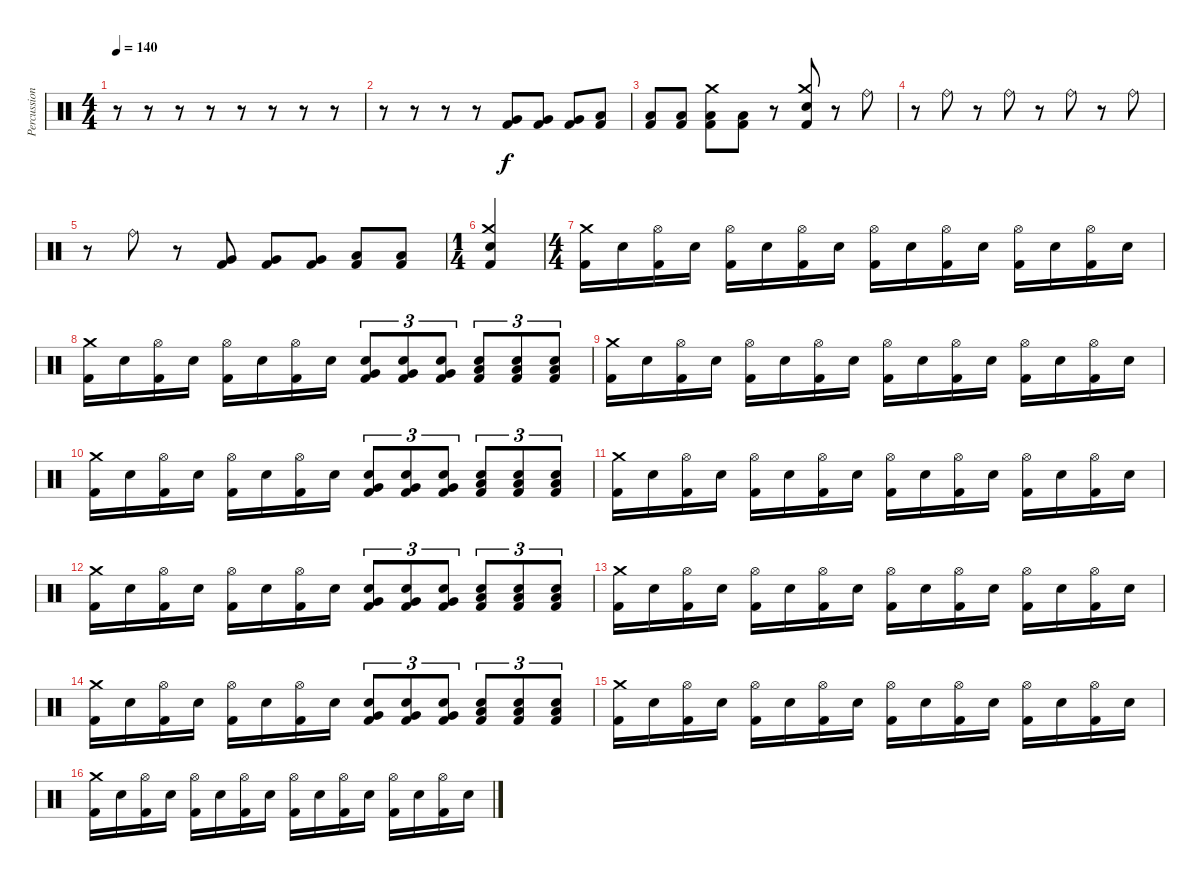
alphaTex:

\track ("Percussion" "Percussion") {instrument percussion}
\staff {score}
\articulation defaults
\ts (4 4)
\tempo 140
\clef neutral
\ks c
r.8{dy f} r.8 r.8 r.8 r.8 r.8 r.8 r.8 |
r.8 r.8 r.8 r.8 ("Very Low Tom (hit)" "Kick (hit) 2").8 ("Very Low Tom (hit)" "Kick (hit) 2").8 ("Very Low Tom (hit)" "Kick (hit) 2").8 ("Low Tom (hit)" "Kick (hit) 2").8 |
("Low Tom (hit)" "Kick (hit) 2").8 ("Low Tom (hit)" "Kick (hit) 2").8 ("Crash medium (hit)" "Low Tom (hit)" "Kick (hit) 2").8 ("Low Floor Tom (hit)" "Kick (hit) 2").8 r.8 ("Crash medium (hit)" "Electric Snare (hit)" "Kick (hit) 2").8 r.8 "Ride (bell)".8 |
r.8 "Ride (bell)".8 r.8 "Ride (bell)".8 r.8 "Ride (bell)".8 r.8 "Ride (bell)".8 |
r.8 "Ride (bell)".8 r.8 ("Very Low Tom (hit)" "Kick (hit) 2").8 ("Very Low Tom (hit)" "Kick (hit) 2").8 ("Very Low Tom (hit)" "Kick (hit) 2").8 ("Low Tom (hit)" "Kick (hit) 2").8 ("Low Tom (hit)" "Kick (hit) 2").8 |
\ts (1 4)
("Crash medium (hit)" "Electric Snare (hit)" "Kick (hit) 2").4 |
\ts (4 4)
("Crash medium (hit)" "Kick (hit) 2").16 "Electric Snare (hit)".16 ("Hi-Hat (open)" "Kick (hit) 2").16 "Electric Snare (hit)".16 ("Hi-Hat (open)" "Kick (hit) 2").16 "Electric Snare (hit)".16 ("Hi-Hat (open)" "Kick (hit) 2").16 "Electric Snare (hit)".16 ("Hi-Hat (open)" "Kick (hit) 2").16 "Electric Snare (hit)".16 ("Hi-Hat (open)" "Kick (hit) 2").16 "Electric Snare (hit)".16 ("Hi-Hat (open)" "Kick (hit) 2").16 "Electric Snare (hit)".16 ("Hi-Hat (open)" "Kick (hit) 2").16 "Electric Snare (hit)".16 |
("Crash medium (hit)" "Kick (hit) 2").16 "Electric Snare (hit)".16 ("Hi-Hat (open)" "Kick (hit) 2").16 "Electric Snare (hit)".16 ("Hi-Hat (open)" "Kick (hit) 2").16 "Electric Snare (hit)".16 ("Hi-Hat (open)" "Kick (hit) 2").16 "Electric Snare (hit)".16 ("Very Low Tom (hit)" "Electric Snare (hit)" "Kick (hit) 2").8{tu (3 2)} ("Very Low Tom (hit)" "Electric Snare (hit)" "Kick (hit) 2").8{tu (3 2)} ("Very Low Tom (hit)" "Electric Snare (hit)" "Kick (hit) 2").8{tu (3 2)} ("Low Tom (hit)" "Electric Snare (hit)" "Kick (hit) 2").8{tu (3 2)} ("Low Tom (hit)" "Electric Snare (hit)" "Kick (hit) 2").8{tu (3 2)} ("Low Tom (hit)" "Electric Snare (hit)" "Kick (hit) 2").8{tu (3 2)} |
("Crash medium (hit)" "Kick (hit) 2").16 "Electric Snare (hit)".16 ("Hi-Hat (open)" "Kick (hit) 2").16 "Electric Snare (hit)".16 ("Hi-Hat (open)" "Kick (hit) 2").16 "Electric Snare (hit)".16 ("Hi-Hat (open)" "Kick (hit) 2").16 "Electric Snare (hit)".16 ("Hi-Hat (open)" "Kick (hit) 2").16 "Electric Snare (hit)".16 ("Hi-Hat (open)" "Kick (hit) 2").16 "Electric Snare (hit)".16 ("Hi-Hat (open)" "Kick (hit) 2").16 "Electric Snare (hit)".16 ("Hi-Hat (open)" "Kick (hit) 2").16 "Electric Snare (hit)".16 |
("Crash medium (hit)" "Kick (hit) 2").16 "Electric Snare (hit)".16 ("Hi-Hat (open)" "Kick (hit) 2").16 "Electric Snare (hit)".16 ("Hi-Hat (open)" "Kick (hit) 2").16 "Electric Snare (hit)".16 ("Hi-Hat (open)" "Kick (hit) 2").16 "Electric Snare (hit)".16 ("Very Low Tom (hit)" "Electric Snare (hit)" "Kick (hit) 2").8{tu (3 2)} ("Very Low Tom (hit)" "Electric Snare (hit)" "Kick (hit) 2").8{tu (3 2)} ("Very Low Tom (hit)" "Electric Snare (hit)" "Kick (hit) 2").8{tu (3 2)} ("Low Tom (hit)" "Electric Snare (hit)" "Kick (hit) 2").8{tu (3 2)} ("Low Tom (hit)" "Electric Snare (hit)" "Kick (hit) 2").8{tu (3 2)} ("Low Tom (hit)" "Electric Snare (hit)" "Kick (hit) 2").8{tu (3 2)} |
("Crash medium (hit)" "Kick (hit) 2").16 "Electric Snare (hit)".16 ("Hi-Hat (open)" "Kick (hit) 2").16 "Electric Snare (hit)".16 ("Hi-Hat (open)" "Kick (hit) 2").16 "Electric Snare (hit)".16 ("Hi-Hat (open)" "Kick (hit) 2").16 "Electric Snare (hit)".16 ("Hi-Hat (open)" "Kick (hit) 2").16 "Electric Snare (hit)".16 ("Hi-Hat (open)" "Kick (hit) 2").16 "Electric Snare (hit)".16 ("Hi-Hat (open)" "Kick (hit) 2").16 "Electric Snare (hit)".16 ("Hi-Hat (open)" "Kick (hit) 2").16 "Electric Snare (hit)".16 |
("Crash medium (hit)" "Kick (hit) 2").16 "Electric Snare (hit)".16 ("Hi-Hat (open)" "Kick (hit) 2").16 "Electric Snare (hit)".16 ("Hi-Hat (open)" "Kick (hit) 2").16 "Electric Snare (hit)".16 ("Hi-Hat (open)" "Kick (hit) 2").16 "Electric Snare (hit)".16 ("Very Low Tom (hit)" "Electric Snare (hit)" "Kick (hit) 2").8{tu (3 2)} ("Very Low Tom (hit)" "Electric Snare (hit)" "Kick (hit) 2").8{tu (3 2)} ("Very Low Tom (hit)" "Electric Snare (hit)" "Kick (hit) 2").8{tu (3 2)} ("Low Tom (hit)" "Electric Snare (hit)" "Kick (hit) 2").8{tu (3 2)} ("Low Tom (hit)" "Electric Snare (hit)" "Kick (hit) 2").8{tu (3 2)} ("Low Tom (hit)" "Electric Snare (hit)" "Kick (hit) 2").8{tu (3 2)} |
("Crash medium (hit)" "Kick (hit) 2").16 "Electric Snare (hit)".16 ("Hi-Hat (open)" "Kick (hit) 2").16 "Electric Snare (hit)".16 ("Hi-Hat (open)" "Kick (hit) 2").16 "Electric Snare (hit)".16 ("Hi-Hat (open)" "Kick (hit) 2").16 "Electric Snare (hit)".16 ("Hi-Hat (open)" "Kick (hit) 2").16 "Electric Snare (hit)".16 ("Hi-Hat (open)" "Kick (hit) 2").16 "Electric Snare (hit)".16 ("Hi-Hat (open)" "Kick (hit) 2").16 "Electric Snare (hit)".16 ("Hi-Hat (open)" "Kick (hit) 2").16 "Electric Snare (hit)".16 |
("Crash medium (hit)" "Kick (hit) 2").16 "Electric Snare (hit)".16 ("Hi-Hat (open)" "Kick (hit) 2").16 "Electric Snare (hit)".16 ("Hi-Hat (open)" "Kick (hit) 2").16 "Electric Snare (hit)".16 ("Hi-Hat (open)" "Kick (hit) 2").16 "Electric Snare (hit)".16 ("Very Low Tom (hit)" "Electric Snare (hit)" "Kick (hit) 2").8{tu (3 2)} ("Very Low Tom (hit)" "Electric Snare (hit)" "Kick (hit) 2").8{tu (3 2)} ("Very Low Tom (hit)" "Electric Snare (hit)" "Kick (hit) 2").8{tu (3 2)} ("Low Tom (hit)" "Electric Snare (hit)" "Kick (hit) 2").8{tu (3 2)} ("Low Tom (hit)" "Electric Snare (hit)" "Kick (hit) 2").8{tu (3 2)} ("Low Tom (hit)" "Electric Snare (hit)" "Kick (hit) 2").8{tu (3 2)} |
("Crash medium (hit)" "Kick (hit) 2").16 "Electric Snare (hit)".16 ("Hi-Hat (open)" "Kick (hit) 2").16 "Electric Snare (hit)".16 ("Hi-Hat (open)" "Kick (hit) 2").16 "Electric Snare (hit)".16 ("Hi-Hat (open)" "Kick (hit) 2").16 "Electric Snare (hit)".16 ("Hi-Hat (open)" "Kick (hit) 2").16 "Electric Snare (hit)".16 ("Hi-Hat (open)" "Kick (hit) 2").16 "Electric Snare (hit)".16 ("Hi-Hat (open)" "Kick (hit) 2").16 "Electric Snare (hit)".16 ("Hi-Hat (open)" "Kick (hit) 2").16 "Electric Snare (hit)".16 |
("Crash medium (hit)" "Kick (hit) 2").16 "Electric Snare (hit)".16 ("Hi-Hat (open)" "Kick (hit) 2").16 "Electric Snare (hit)".16 ("Hi-Hat (open)" "Kick (hit) 2").16 "Electric Snare (hit)".16 ("Hi-Hat (open)" "Kick (hit) 2").16 "Electric Snare (hit)".16 ("Hi-Hat (open)" "Kick (hit) 2").16 "Electric Snare (hit)".16 ("Hi-Hat (open)" "Kick (hit) 2").16 "Electric Snare (hit)".16 ("Hi-Hat (open)" "Kick (hit) 2").16 "Electric Snare (hit)".16 ("Hi-Hat (open)" "Kick (hit) 2").16 "Electric Snare (hit)".16
